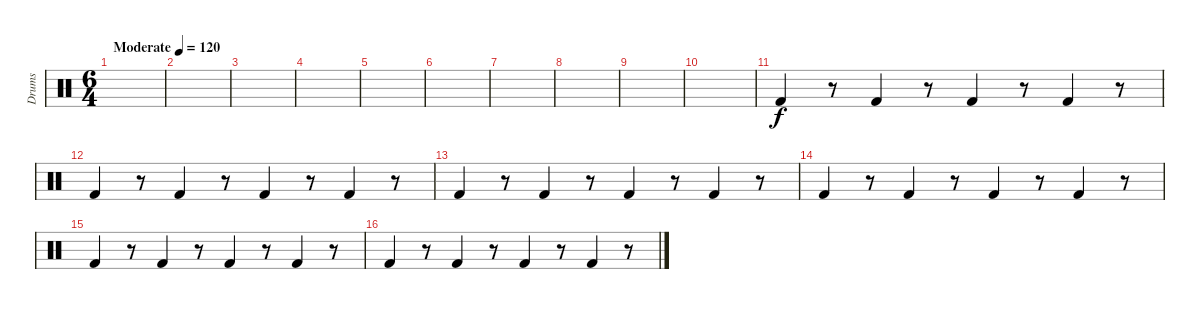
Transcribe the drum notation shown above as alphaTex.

\track ("Drums" "Drums") {instrument percussion}
\staff {score}
\articulation defaults
\ts (6 4)
\tempo (120 "Moderate")
\clef neutral
\ks c
|
|
|
|
|
|
|
|
|
|
"Kick (hit) 2".4 r.8 "Kick (hit) 2".4 r.8 "Kick (hit) 2".4 r.8 "Kick (hit) 2".4 r.8 |
"Kick (hit) 2".4 r.8 "Kick (hit) 2".4 r.8 "Kick (hit) 2".4 r.8 "Kick (hit) 2".4 r.8 |
"Kick (hit) 2".4 r.8 "Kick (hit) 2".4 r.8 "Kick (hit) 2".4 r.8 "Kick (hit) 2".4 r.8 |
"Kick (hit) 2".4 r.8 "Kick (hit) 2".4 r.8 "Kick (hit) 2".4 r.8 "Kick (hit) 2".4 r.8 |
"Kick (hit) 2".4 r.8 "Kick (hit) 2".4 r.8 "Kick (hit) 2".4 r.8 "Kick (hit) 2".4 r.8 |
"Kick (hit) 2".4 r.8 "Kick (hit) 2".4 r.8 "Kick (hit) 2".4 r.8 "Kick (hit) 2".4 r.8
